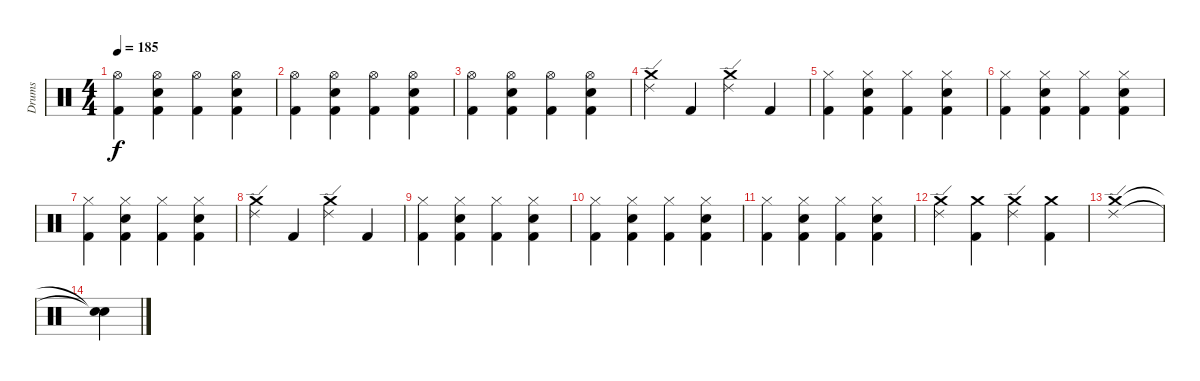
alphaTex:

\track ("Drums" "Drums") {instrument percussion}
\staff {score}
\articulation defaults
\ts (4 4)
\tempo 185
\clef neutral
\ks c
("Hi-Hat (open)" "Kick (hit) 2").4{dy f} ("Hi-Hat (open)" "Kick (hit) 2" "Snare (hit) 2").4 ("Hi-Hat (open)" "Kick (hit) 2").4 ("Hi-Hat (open)" "Kick (hit) 2" "Snare (hit) 2").4 |
("Hi-Hat (open)" "Kick (hit) 2").4 ("Hi-Hat (open)" "Kick (hit) 2" "Snare (hit) 2").4 ("Hi-Hat (open)" "Kick (hit) 2").4 ("Hi-Hat (open)" "Kick (hit) 2" "Snare (hit) 2").4 |
("Hi-Hat (open)" "Kick (hit) 2").4 ("Hi-Hat (open)" "Kick (hit) 2" "Snare (hit) 2").4 ("Hi-Hat (open)" "Kick (hit) 2").4 ("Hi-Hat (open)" "Kick (hit) 2" "Snare (hit) 2").4 |
("Crash medium (hit)" "Ride (edge) 2").4 "Kick (hit) 2".4 ("Crash medium (hit)" "Ride (edge) 2").4 "Kick (hit) 2".4 |
("Hi-Hat (closed)" "Kick (hit) 2").4 ("Hi-Hat (closed)" "Kick (hit) 2" "Snare (hit) 2").4 ("Hi-Hat (closed)" "Kick (hit) 2").4 ("Hi-Hat (closed)" "Kick (hit) 2" "Snare (hit) 2").4 |
("Hi-Hat (closed)" "Kick (hit) 2").4 ("Hi-Hat (closed)" "Kick (hit) 2" "Snare (hit) 2").4 ("Hi-Hat (closed)" "Kick (hit) 2").4 ("Hi-Hat (closed)" "Kick (hit) 2" "Snare (hit) 2").4 |
("Hi-Hat (closed)" "Kick (hit) 2").4 ("Hi-Hat (closed)" "Kick (hit) 2" "Snare (hit) 2").4 ("Hi-Hat (closed)" "Kick (hit) 2").4 ("Hi-Hat (closed)" "Kick (hit) 2" "Snare (hit) 2").4 |
("Crash medium (hit)" "Ride (edge) 2").4 "Kick (hit) 2".4 ("Crash medium (hit)" "Ride (edge) 2").4 "Kick (hit) 2".4 |
("Hi-Hat (closed)" "Kick (hit) 2").4 ("Hi-Hat (closed)" "Kick (hit) 2" "Snare (hit) 2").4 ("Hi-Hat (closed)" "Kick (hit) 2").4 ("Hi-Hat (closed)" "Kick (hit) 2" "Snare (hit) 2").4 |
("Hi-Hat (closed)" "Kick (hit) 2").4 ("Hi-Hat (closed)" "Kick (hit) 2" "Snare (hit) 2").4 ("Hi-Hat (closed)" "Kick (hit) 2").4 ("Hi-Hat (closed)" "Kick (hit) 2" "Snare (hit) 2").4 |
("Hi-Hat (closed)" "Kick (hit) 2").4 ("Hi-Hat (closed)" "Kick (hit) 2" "Snare (hit) 2").4 ("Hi-Hat (closed)" "Kick (hit) 2").4 ("Hi-Hat (closed)" "Kick (hit) 2" "Snare (hit) 2").4 |
("Crash medium (hit)" "Ride (edge) 2").4 ("Crash medium (hit)" "Kick (hit) 2").4 ("Crash medium (hit)" "Ride (edge) 2").4 ("Crash medium (hit)" "Kick (hit) 2").4 |
("Crash medium (hit)" "Ride (edge) 2").1 |
("Snare (hit)"{t} "Snare (hit)"{t}).4
